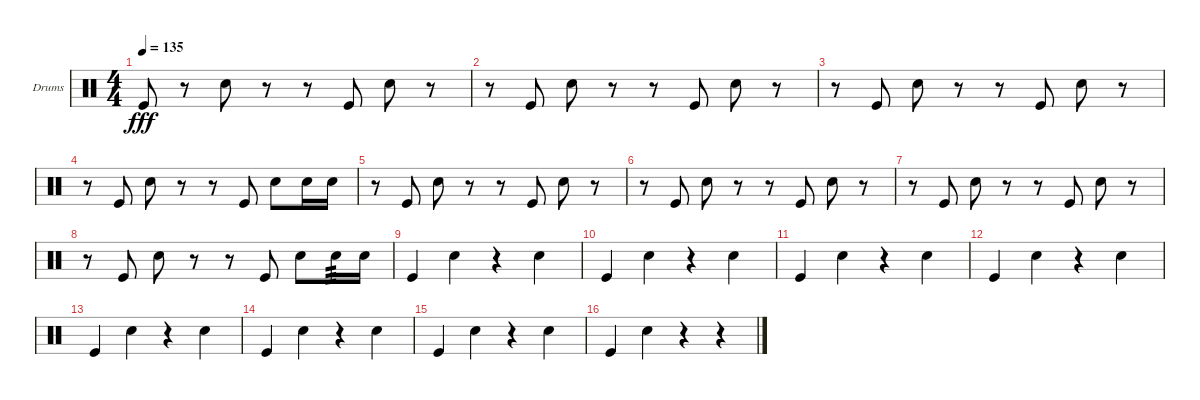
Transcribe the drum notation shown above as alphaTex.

\defaultSystemsLayout 4
\bracketExtendMode groupsimilarinstruments
\firstSystemTrackNameOrientation horizontal
\otherSystemsTrackNameOrientation horizontal
\track ("Matt Helders" "Drums") {instrument percussion}
\staff {score}
\articulation defaults
\ts (4 4)
\tempo 135
\clef neutral
\ks c "Kick (hit)".8{dy fff}
r.8 "Snare (hit) 2".8 r.8 r.8 "Kick (hit)".8 "Snare (hit) 2".8 r.8 |
r.8 "Kick (hit)".8 "Snare (hit) 2".8 r.8 r.8 "Kick (hit)".8 "Snare (hit) 2".8 r.8 |
r.8 "Kick (hit)".8 "Snare (hit) 2".8 r.8 r.8 "Kick (hit)".8 "Snare (hit) 2".8 r.8 |
r.8 "Kick (hit)".8 "Snare (hit) 2".8 r.8 r.8 "Kick (hit)".8 "Snare (hit) 2".8 "Snare (hit) 2".16 "Snare (hit) 2".16 |
r.8 "Kick (hit)".8 "Snare (hit) 2".8 r.8 r.8 "Kick (hit)".8 "Snare (hit) 2".8 r.8 |
r.8 "Kick (hit)".8 "Snare (hit) 2".8 r.8 r.8 "Kick (hit)".8 "Snare (hit) 2".8 r.8 |
r.8 "Kick (hit)".8 "Snare (hit) 2".8 r.8 r.8 "Kick (hit)".8 "Snare (hit) 2".8 r.8 |
r.8 "Kick (hit)".8 "Snare (hit) 2".8 r.8 r.8 "Kick (hit)".8 "Snare (hit) 2".8 "Snare (hit) 2".16{tp 3} "Snare (hit) 2".16 |
"Kick (hit)".4 "Snare (hit) 2".4 r.4 "Snare (hit) 2".4 |
"Kick (hit)".4 "Snare (hit) 2".4 r.4 "Snare (hit) 2".4 |
"Kick (hit)".4 "Snare (hit) 2".4 r.4 "Snare (hit) 2".4 |
"Kick (hit)".4 "Snare (hit) 2".4 r.4 "Snare (hit) 2".4 |
"Kick (hit)".4 "Snare (hit) 2".4 r.4 "Snare (hit) 2".4 |
"Kick (hit)".4 "Snare (hit) 2".4 r.4 "Snare (hit) 2".4 |
"Kick (hit)".4 "Snare (hit) 2".4 r.4 "Snare (hit) 2".4 |
"Kick (hit)".4 "Snare (hit) 2".4 r.4 r.4
